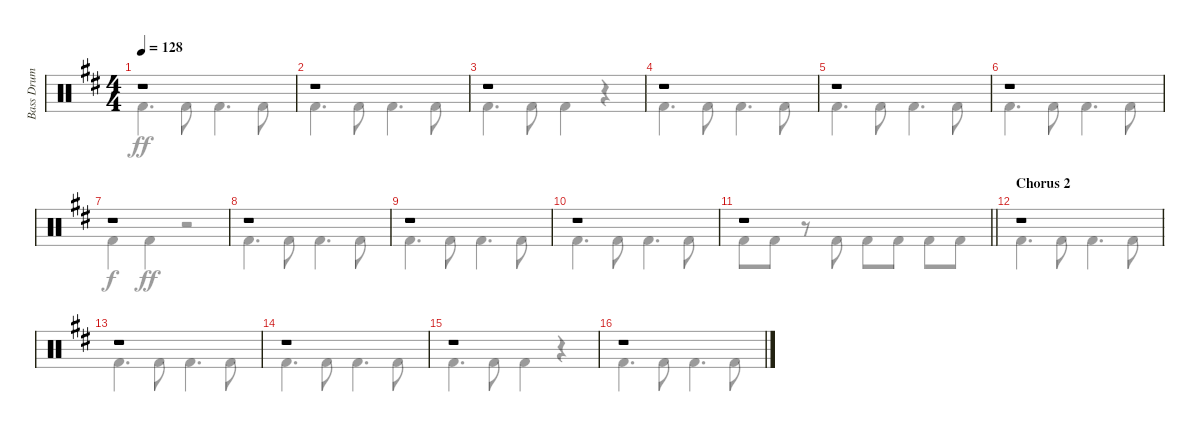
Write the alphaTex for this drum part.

\track ("Bass Drum" "Bass Drum") {instrument percussion}
\staff {score}
\articulation defaults
\voice
\ts (4 4)
\tempo 128
\clef neutral
\ks bminor
r.1{dy f} |
r.1 |
r.1 |
r.1 |
r.1 |
r.1 |
r.1 |
r.1 |
r.1 |
r.1 |
\barLineRight lightlight
r.1 |
\section ("" "Chorus 2")
r.1 |
r.1 |
r.1 |
r.1 |
r.1
\voice
\clef neutral
\ottava regular
\simile none
\ks bminor "Kick (hit) 2".4{d dy ff} "Kick (hit) 2".8 "Kick (hit) 2".4{d} "Kick (hit) 2".8
|
"Kick (hit) 2".4{d} "Kick (hit) 2".8 "Kick (hit) 2".4{d} "Kick (hit) 2".8 |
"Kick (hit) 2".4{d} "Kick (hit) 2".8 "Kick (hit) 2".4 r.4 |
"Kick (hit) 2".4{d} "Kick (hit) 2".8 "Kick (hit) 2".4{d} "Kick (hit) 2".8 |
"Kick (hit) 2".4{d} "Kick (hit) 2".8 "Kick (hit) 2".4{d} "Kick (hit) 2".8 |
"Kick (hit) 2".4{d} "Kick (hit) 2".8 "Kick (hit) 2".4{d} "Kick (hit) 2".8 |
"Kick (hit) 2".4{dy f} "Kick (hit) 2".4{dy ff} r.2 |
"Kick (hit) 2".4{d} "Kick (hit) 2".8 "Kick (hit) 2".4{d} "Kick (hit) 2".8 |
"Kick (hit) 2".4{d} "Kick (hit) 2".8 "Kick (hit) 2".4{d} "Kick (hit) 2".8 |
"Kick (hit) 2".4{d} "Kick (hit) 2".8 "Kick (hit) 2".4{d} "Kick (hit) 2".8 |
\barLineRight lightlight "Kick (hit) 2".8 "Kick (hit) 2".8
r.8 "Kick (hit) 2".8 "Kick (hit) 2".8 "Kick (hit) 2".8 "Kick (hit) 2".8 "Kick (hit) 2".8 |
"Kick (hit) 2".4{d} "Kick (hit) 2".8 "Kick (hit) 2".4{d} "Kick (hit) 2".8 |
"Kick (hit) 2".4{d} "Kick (hit) 2".8 "Kick (hit) 2".4{d} "Kick (hit) 2".8 |
"Kick (hit) 2".4{d} "Kick (hit) 2".8 "Kick (hit) 2".4{d} "Kick (hit) 2".8 |
"Kick (hit) 2".4{d} "Kick (hit) 2".8 "Kick (hit) 2".4 r.4 |
"Kick (hit) 2".4{d} "Kick (hit) 2".8 "Kick (hit) 2".4{d} "Kick (hit) 2".8
